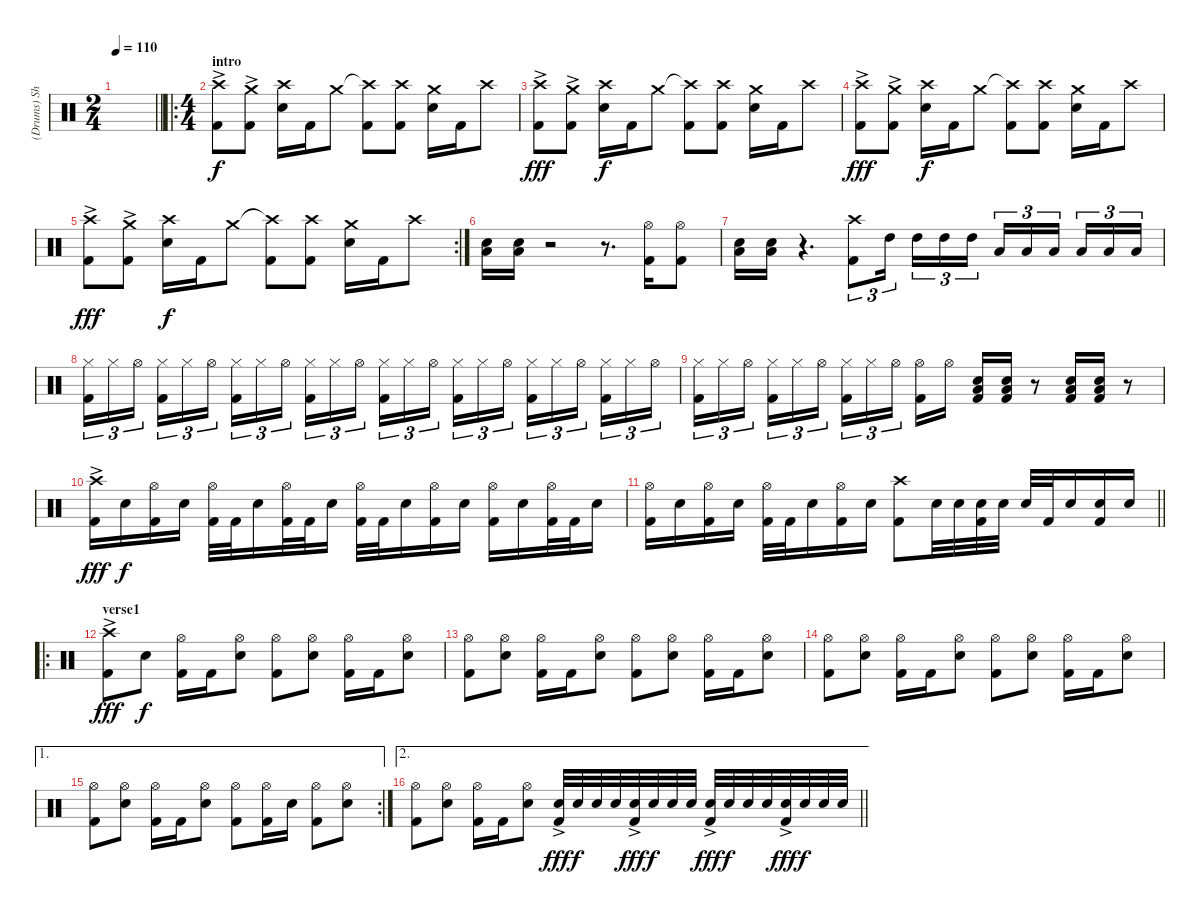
\track ("(Drums) Shinya" "(Drums) Sh") {instrument percussion}
\staff {score}
\articulation defaults
\ts (2 4)
\tempo 110
\clef neutral
\barLineRight lightlight
\ks c
|
\ro
\ts (4 4)
\section ("" "intro")
("Crash high (hit)"{ac} "Kick (hit) 2").8 ("Crash medium (hit)"{ac} "Kick (hit) 2").8 ("Crash high (hit)" "Snare (hit) 2").16{dy f} "Kick (hit) 2".16 "Crash medium (hit)".8 ("Crash high (hit)"{t} "Kick (hit) 2").8 ("Crash high (hit)" "Kick (hit) 2").8 ("Crash medium (hit)" "Snare (hit) 2").16 "Kick (hit) 2".16 "Crash high (hit)".8 |
("Crash high (hit)"{ac} "Kick (hit) 2").8{dy fff} ("Crash medium (hit)"{ac} "Kick (hit) 2").8 ("Crash high (hit)" "Snare (hit) 2").16{dy f} "Kick (hit) 2".16 "Crash medium (hit)".8 ("Crash high (hit)"{t} "Kick (hit) 2").8 ("Crash high (hit)" "Kick (hit) 2").8 ("Crash medium (hit)" "Snare (hit) 2").16 "Kick (hit) 2".16 "Crash high (hit)".8 |
("Crash high (hit)"{ac} "Kick (hit) 2").8{dy fff} ("Crash medium (hit)"{ac} "Kick (hit) 2").8 ("Crash high (hit)" "Snare (hit) 2").16{dy f} "Kick (hit) 2".16 "Crash medium (hit)".8 ("Crash high (hit)"{t} "Kick (hit) 2").8 ("Crash high (hit)" "Kick (hit) 2").8 ("Crash medium (hit)" "Snare (hit) 2").16 "Kick (hit) 2".16 "Crash high (hit)".8 |
\rc 2
("Crash high (hit)"{ac} "Kick (hit) 2").8{dy fff} ("Crash medium (hit)"{ac} "Kick (hit) 2").8 ("Crash high (hit)" "Snare (hit) 2").16{dy f} "Kick (hit) 2".16 "Crash medium (hit)".8 ("Crash high (hit)"{t} "Kick (hit) 2").8 ("Crash high (hit)" "Kick (hit) 2").8 ("Crash medium (hit)" "Snare (hit) 2").16 "Kick (hit) 2".16 "Crash high (hit)".8 |
("Snare (hit) 2" "Low Floor Tom (hit)").16 ("Snare (hit) 2" "Low Floor Tom (hit)").16 r.2 r.8{d} ("Hi-Hat (open)" "Kick (hit) 2").16 ("Hi-Hat (open)" "Kick (hit) 2").8 |
("Snare (hit) 2" "Low Floor Tom (hit)").16 ("Snare (hit) 2" "Low Floor Tom (hit)").16 r.4{d} ("Crash high (hit)" "Kick (hit) 2").8{tu (3 2)} "High Tom (hit)".16{tu (3 2) beam splitsecondary} "High Tom (hit)".16{tu (3 2)} "High Tom (hit)".16{tu (3 2)} "High Tom (hit)".16{tu (3 2)} "Low Tom (hit)".16{tu (3 2)} "Low Tom (hit)".16{tu (3 2)} "Low Tom (hit)".16{tu (3 2) beam splitsecondary} "Low Tom (hit)".16{tu (3 2)} "Low Floor Tom (hit)".16{tu (3 2)} "Low Floor Tom (hit)".16{tu (3 2)} |
("Hi-Hat (closed)" "Kick (hit) 2").16{tu (3 2)} "Hi-Hat (closed)".16{tu (3 2)} "Hi-Hat (open)".16{tu (3 2) beam splitsecondary} ("Hi-Hat (closed)" "Kick (hit) 2").16{tu (3 2)} "Hi-Hat (closed)".16{tu (3 2)} "Hi-Hat (open)".16{tu (3 2)} ("Hi-Hat (closed)" "Kick (hit) 2").16{tu (3 2)} "Hi-Hat (closed)".16{tu (3 2)} "Hi-Hat (open)".16{tu (3 2) beam splitsecondary} ("Hi-Hat (closed)" "Kick (hit) 2").16{tu (3 2)} "Hi-Hat (closed)".16{tu (3 2)} "Hi-Hat (open)".16{tu (3 2)} ("Hi-Hat (closed)" "Kick (hit) 2").16{tu (3 2)} "Hi-Hat (closed)".16{tu (3 2)} "Hi-Hat (open)".16{tu (3 2) beam splitsecondary} ("Hi-Hat (closed)" "Kick (hit) 2").16{tu (3 2)} "Hi-Hat (closed)".16{tu (3 2)} "Hi-Hat (open)".16{tu (3 2)} ("Hi-Hat (closed)" "Kick (hit) 2").16{tu (3 2)} "Hi-Hat (closed)".16{tu (3 2)} "Hi-Hat (open)".16{tu (3 2) beam splitsecondary} ("Hi-Hat (closed)" "Kick (hit) 2").16{tu (3 2)} "Hi-Hat (closed)".16{tu (3 2)} "Hi-Hat (open)".16{tu (3 2)} |
("Hi-Hat (closed)" "Kick (hit) 2").16{tu (3 2)} "Hi-Hat (closed)".16{tu (3 2)} "Hi-Hat (open)".16{tu (3 2) beam splitsecondary} ("Hi-Hat (closed)" "Kick (hit) 2").16{tu (3 2)} "Hi-Hat (closed)".16{tu (3 2)} "Hi-Hat (open)".16{tu (3 2)} ("Hi-Hat (closed)" "Kick (hit) 2").16{tu (3 2)} "Hi-Hat (closed)".16{tu (3 2)} "Hi-Hat (open)".16{tu (3 2) beam splitsecondary} ("Hi-Hat (open)" "Kick (hit) 2").16 "Hi-Hat (open)".16 ("Snare (hit) 2" "Low Floor Tom (hit)" "Kick (hit) 2").16 ("Snare (hit) 2" "Low Floor Tom (hit)" "Kick (hit) 2").16 r.8 ("Snare (hit) 2" "Low Floor Tom (hit)" "Kick (hit) 2").16 ("Snare (hit) 2" "Low Floor Tom (hit)" "Kick (hit) 2").16 r.8 |
("Crash high (hit)"{ac} "Kick (hit) 2").16{dy fff} "Snare (hit) 2".16{dy f} ("Hi-Hat (open)" "Kick (hit) 2").16 "Snare (hit) 2".16 ("Hi-Hat (open)" "Kick (hit) 2").32 "Kick (hit) 2".32 "Snare (hit) 2".16 ("Hi-Hat (open)" "Kick (hit) 2").32 "Kick (hit) 2".32 "Snare (hit) 2".16 ("Hi-Hat (open)" "Kick (hit) 2").32 "Kick (hit) 2".32 "Snare (hit) 2".16 ("Hi-Hat (open)" "Kick (hit) 2").16 "Snare (hit) 2".16 ("Hi-Hat (open)" "Kick (hit) 2").16 "Snare (hit) 2".16 ("Hi-Hat (open)" "Kick (hit) 2").32 "Kick (hit) 2".32 "Snare (hit) 2".16 |
\barLineRight lightlight
("Hi-Hat (open)" "Kick (hit) 2").16 "Snare (hit) 2".16 ("Hi-Hat (open)" "Kick (hit) 2").16 "Snare (hit) 2".16 ("Hi-Hat (open)" "Kick (hit) 2").32 "Kick (hit) 2".32 "Snare (hit) 2".16 ("Hi-Hat (open)" "Kick (hit) 2").16 "Snare (hit) 2".16 ("Crash high (hit)" "Kick (hit) 2").8 "Snare (hit) 2".32 "Snare (hit) 2".32 ("Snare (hit) 2" "Kick (hit) 2").32 "Snare (hit) 2".32 "Snare (hit) 2".32 "Kick (hit) 2".32 "Snare (hit) 2".16 ("Snare (hit) 2" "Kick (hit) 2").16 "Snare (hit) 2".16 |
\ro
\section ("" "verse1")
("Crash high (hit)"{ac} "Kick (hit) 2").8{dy fff} "Snare (hit) 2".8{dy f} ("Hi-Hat (open)" "Kick (hit) 2").16 "Kick (hit) 2".16 ("Hi-Hat (open)" "Snare (hit) 2").8 ("Hi-Hat (open)" "Kick (hit) 2").8 ("Hi-Hat (open)" "Snare (hit) 2").8 ("Hi-Hat (open)" "Kick (hit) 2").16 "Kick (hit) 2".16 ("Hi-Hat (open)" "Snare (hit) 2").8 |
("Hi-Hat (open)" "Kick (hit) 2").8 ("Hi-Hat (open)" "Snare (hit) 2").8 ("Hi-Hat (open)" "Kick (hit) 2").16 "Kick (hit) 2".16 ("Hi-Hat (open)" "Snare (hit) 2").8 ("Hi-Hat (open)" "Kick (hit) 2").8 ("Hi-Hat (open)" "Snare (hit) 2").8 ("Hi-Hat (open)" "Kick (hit) 2").16 "Kick (hit) 2".16 ("Hi-Hat (open)" "Snare (hit) 2").8 |
("Hi-Hat (open)" "Kick (hit) 2").8 ("Hi-Hat (open)" "Snare (hit) 2").8 ("Hi-Hat (open)" "Kick (hit) 2").16 "Kick (hit) 2".16 ("Hi-Hat (open)" "Snare (hit) 2").8 ("Hi-Hat (open)" "Kick (hit) 2").8 ("Hi-Hat (open)" "Snare (hit) 2").8 ("Hi-Hat (open)" "Kick (hit) 2").16 "Kick (hit) 2".16 ("Hi-Hat (open)" "Snare (hit) 2").8 |
\ae 1
\rc 2
("Hi-Hat (open)" "Kick (hit) 2").8 ("Hi-Hat (open)" "Snare (hit) 2").8 ("Hi-Hat (open)" "Kick (hit) 2").16 "Kick (hit) 2".16 ("Hi-Hat (open)" "Snare (hit) 2").8 ("Hi-Hat (open)" "Kick (hit) 2").8 ("Hi-Hat (open)" "Kick (hit) 2").16 "Snare (hit) 2".16 ("Hi-Hat (open)" "Kick (hit) 2").8 ("Hi-Hat (open)" "Snare (hit) 2").8 |
\ae 2
\barLineRight lightlight
("Hi-Hat (open)" "Kick (hit) 2").8 ("Hi-Hat (open)" "Snare (hit) 2").8 ("Hi-Hat (open)" "Kick (hit) 2").16 "Kick (hit) 2".16 ("Hi-Hat (open)" "Snare (hit) 2").8 ("Snare (hit) 2"{ac} "Kick (hit) 2").32{dy fff} "Snare (hit) 2".32{dy f} "Snare (hit) 2".32 "Snare (hit) 2".32 ("Snare (hit) 2"{ac} "Kick (hit) 2").32{dy fff} "Snare (hit) 2".32{dy f} "Snare (hit) 2".32 "Snare (hit) 2".32 ("Snare (hit) 2"{ac} "Kick (hit) 2").32{dy fff} "Snare (hit) 2".32{dy f} "Snare (hit) 2".32 "Snare (hit) 2".32 ("Snare (hit) 2"{ac} "Kick (hit) 2").32{dy fff} "Snare (hit) 2".32{dy f} "Snare (hit) 2".32 "Snare (hit) 2".32
